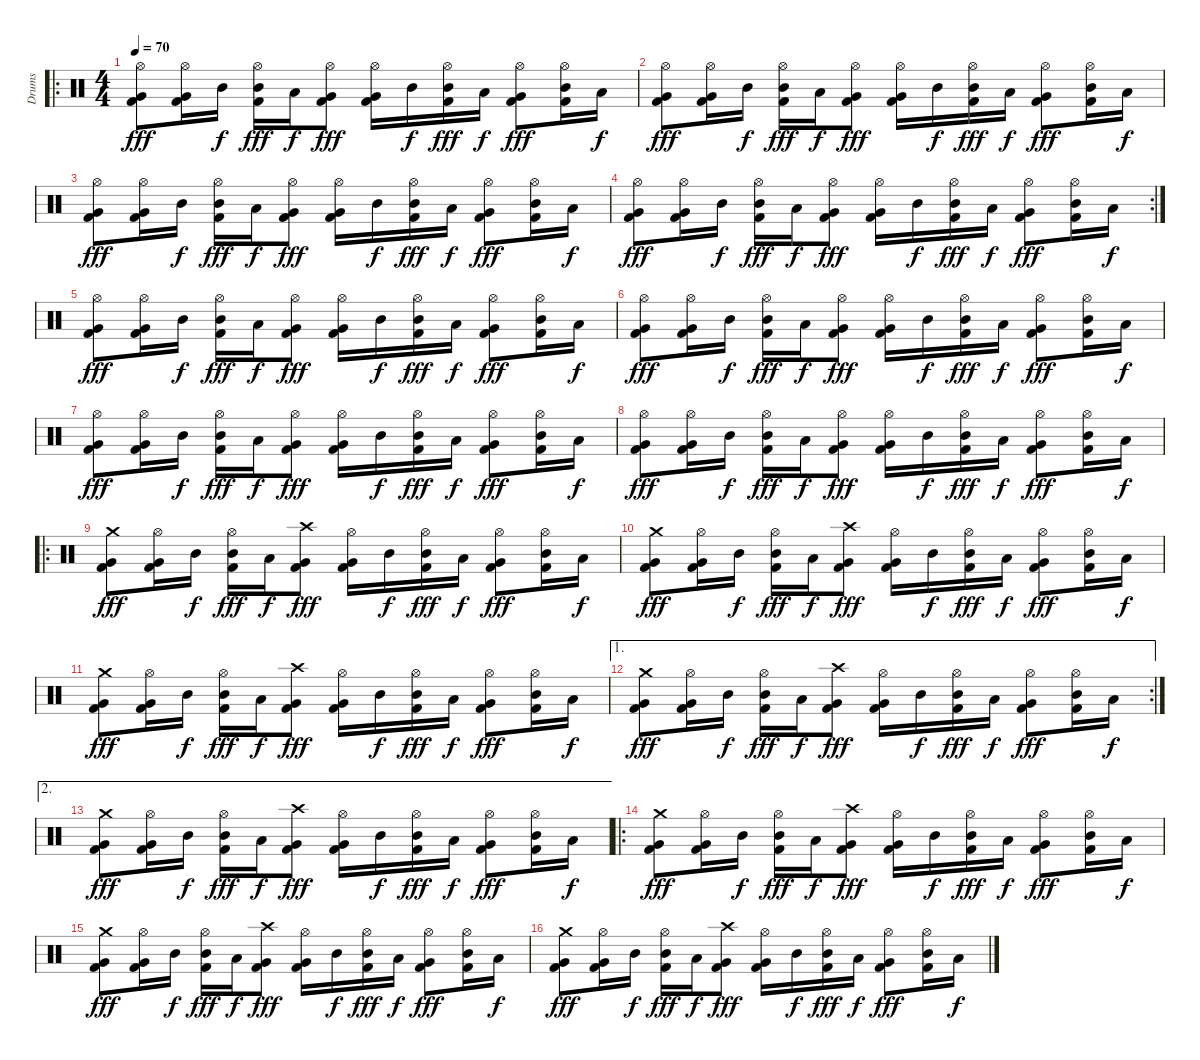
\track ("Drums" "Drums") {instrument percussion}
\staff {score}
\articulation defaults
\ro
\ts (4 4)
\tempo 70
\clef neutral
\ks c
("Hi-Hat (open)" "Kick (hit) 2" "Very Low Tom (hit)").8{dy fff} ("Hi-Hat (open)" "Kick (hit) 2" "Very Low Tom (hit)").16 "Mid Tom (hit)".16{dy f} ("Hi-Hat (open)" "Kick (hit) 2" "Mid Tom (hit)").16{dy fff} "Low Tom (hit)".16{dy f} ("Hi-Hat (open)" "Kick (hit) 2" "Very Low Tom (hit)").8{dy fff} ("Hi-Hat (open)" "Kick (hit) 2" "Very Low Tom (hit)").16 "Mid Tom (hit)".16{dy f} ("Hi-Hat (open)" "Kick (hit) 2" "Mid Tom (hit)").16{dy fff} "Low Tom (hit)".16{dy f} ("Hi-Hat (open)" "Kick (hit) 2" "Very Low Tom (hit)").8{dy fff} ("Hi-Hat (open)" "Kick (hit) 2" "Mid Tom (hit)").16 "Low Tom (hit)".16{dy f} |
("Hi-Hat (open)" "Kick (hit) 2" "Very Low Tom (hit)").8{dy fff} ("Hi-Hat (open)" "Kick (hit) 2" "Very Low Tom (hit)").16 "Mid Tom (hit)".16{dy f} ("Hi-Hat (open)" "Kick (hit) 2" "Mid Tom (hit)").16{dy fff} "Low Tom (hit)".16{dy f} ("Hi-Hat (open)" "Kick (hit) 2" "Very Low Tom (hit)").8{dy fff} ("Hi-Hat (open)" "Kick (hit) 2" "Very Low Tom (hit)").16 "Mid Tom (hit)".16{dy f} ("Hi-Hat (open)" "Kick (hit) 2" "Mid Tom (hit)").16{dy fff} "Low Tom (hit)".16{dy f} ("Hi-Hat (open)" "Kick (hit) 2" "Very Low Tom (hit)").8{dy fff} ("Hi-Hat (open)" "Kick (hit) 2" "Mid Tom (hit)").16 "Low Tom (hit)".16{dy f} |
("Hi-Hat (open)" "Kick (hit) 2" "Very Low Tom (hit)").8{dy fff} ("Hi-Hat (open)" "Kick (hit) 2" "Very Low Tom (hit)").16 "Mid Tom (hit)".16{dy f} ("Hi-Hat (open)" "Kick (hit) 2" "Mid Tom (hit)").16{dy fff} "Low Tom (hit)".16{dy f} ("Hi-Hat (open)" "Kick (hit) 2" "Very Low Tom (hit)").8{dy fff} ("Hi-Hat (open)" "Kick (hit) 2" "Very Low Tom (hit)").16 "Mid Tom (hit)".16{dy f} ("Hi-Hat (open)" "Kick (hit) 2" "Mid Tom (hit)").16{dy fff} "Low Tom (hit)".16{dy f} ("Hi-Hat (open)" "Kick (hit) 2" "Very Low Tom (hit)").8{dy fff} ("Hi-Hat (open)" "Kick (hit) 2" "Mid Tom (hit)").16 "Low Tom (hit)".16{dy f} |
\rc 2
("Hi-Hat (open)" "Kick (hit) 2" "Very Low Tom (hit)").8{dy fff} ("Hi-Hat (open)" "Kick (hit) 2" "Very Low Tom (hit)").16 "Mid Tom (hit)".16{dy f} ("Hi-Hat (open)" "Kick (hit) 2" "Mid Tom (hit)").16{dy fff} "Low Tom (hit)".16{dy f} ("Hi-Hat (open)" "Kick (hit) 2" "Very Low Tom (hit)").8{dy fff} ("Hi-Hat (open)" "Kick (hit) 2" "Very Low Tom (hit)").16 "Mid Tom (hit)".16{dy f} ("Hi-Hat (open)" "Kick (hit) 2" "Mid Tom (hit)").16{dy fff} "Low Tom (hit)".16{dy f} ("Hi-Hat (open)" "Kick (hit) 2" "Very Low Tom (hit)").8{dy fff} ("Hi-Hat (open)" "Kick (hit) 2" "Mid Tom (hit)").16 "Low Tom (hit)".16{dy f} |
("Hi-Hat (open)" "Kick (hit) 2" "Very Low Tom (hit)").8{dy fff} ("Hi-Hat (open)" "Kick (hit) 2" "Very Low Tom (hit)").16 "Mid Tom (hit)".16{dy f} ("Hi-Hat (open)" "Kick (hit) 2" "Mid Tom (hit)").16{dy fff} "Low Tom (hit)".16{dy f} ("Hi-Hat (open)" "Kick (hit) 2" "Very Low Tom (hit)").8{dy fff} ("Hi-Hat (open)" "Kick (hit) 2" "Very Low Tom (hit)").16 "Mid Tom (hit)".16{dy f} ("Hi-Hat (open)" "Kick (hit) 2" "Mid Tom (hit)").16{dy fff} "Low Tom (hit)".16{dy f} ("Hi-Hat (open)" "Kick (hit) 2" "Very Low Tom (hit)").8{dy fff} ("Hi-Hat (open)" "Kick (hit) 2" "Mid Tom (hit)").16 "Low Tom (hit)".16{dy f} |
("Hi-Hat (open)" "Kick (hit) 2" "Very Low Tom (hit)").8{dy fff} ("Hi-Hat (open)" "Kick (hit) 2" "Very Low Tom (hit)").16 "Mid Tom (hit)".16{dy f} ("Hi-Hat (open)" "Kick (hit) 2" "Mid Tom (hit)").16{dy fff} "Low Tom (hit)".16{dy f} ("Hi-Hat (open)" "Kick (hit) 2" "Very Low Tom (hit)").8{dy fff} ("Hi-Hat (open)" "Kick (hit) 2" "Very Low Tom (hit)").16 "Mid Tom (hit)".16{dy f} ("Hi-Hat (open)" "Kick (hit) 2" "Mid Tom (hit)").16{dy fff} "Low Tom (hit)".16{dy f} ("Hi-Hat (open)" "Kick (hit) 2" "Very Low Tom (hit)").8{dy fff} ("Hi-Hat (open)" "Kick (hit) 2" "Mid Tom (hit)").16 "Low Tom (hit)".16{dy f} |
("Hi-Hat (open)" "Kick (hit) 2" "Very Low Tom (hit)").8{dy fff} ("Hi-Hat (open)" "Kick (hit) 2" "Very Low Tom (hit)").16 "Mid Tom (hit)".16{dy f} ("Hi-Hat (open)" "Kick (hit) 2" "Mid Tom (hit)").16{dy fff} "Low Tom (hit)".16{dy f} ("Hi-Hat (open)" "Kick (hit) 2" "Very Low Tom (hit)").8{dy fff} ("Hi-Hat (open)" "Kick (hit) 2" "Very Low Tom (hit)").16 "Mid Tom (hit)".16{dy f} ("Hi-Hat (open)" "Kick (hit) 2" "Mid Tom (hit)").16{dy fff} "Low Tom (hit)".16{dy f} ("Hi-Hat (open)" "Kick (hit) 2" "Very Low Tom (hit)").8{dy fff} ("Hi-Hat (open)" "Kick (hit) 2" "Mid Tom (hit)").16 "Low Tom (hit)".16{dy f} |
("Hi-Hat (open)" "Kick (hit) 2" "Very Low Tom (hit)").8{dy fff} ("Hi-Hat (open)" "Kick (hit) 2" "Very Low Tom (hit)").16 "Mid Tom (hit)".16{dy f} ("Hi-Hat (open)" "Kick (hit) 2" "Mid Tom (hit)").16{dy fff} "Low Tom (hit)".16{dy f} ("Hi-Hat (open)" "Kick (hit) 2" "Very Low Tom (hit)").8{dy fff} ("Hi-Hat (open)" "Kick (hit) 2" "Very Low Tom (hit)").16 "Mid Tom (hit)".16{dy f} ("Hi-Hat (open)" "Kick (hit) 2" "Mid Tom (hit)").16{dy fff} "Low Tom (hit)".16{dy f} ("Hi-Hat (open)" "Kick (hit) 2" "Very Low Tom (hit)").8{dy fff} ("Hi-Hat (open)" "Kick (hit) 2" "Mid Tom (hit)").16 "Low Tom (hit)".16{dy f} |
\ro
("Crash medium (hit)" "Kick (hit) 2" "Very Low Tom (hit)").8{dy fff} ("Hi-Hat (open)" "Kick (hit) 2" "Very Low Tom (hit)").16 "Mid Tom (hit)".16{dy f} ("Hi-Hat (open)" "Kick (hit) 2" "Mid Tom (hit)").16{dy fff} "Low Tom (hit)".16{dy f} ("Crash high (hit)" "Kick (hit) 2" "Very Low Tom (hit)").8{dy fff} ("Hi-Hat (open)" "Kick (hit) 2" "Very Low Tom (hit)").16 "Mid Tom (hit)".16{dy f} ("Hi-Hat (open)" "Kick (hit) 2" "Mid Tom (hit)").16{dy fff} "Low Tom (hit)".16{dy f} ("Hi-Hat (open)" "Kick (hit) 2" "Very Low Tom (hit)").8{dy fff} ("Hi-Hat (open)" "Kick (hit) 2" "Mid Tom (hit)").16 "Low Tom (hit)".16{dy f} |
("Crash medium (hit)" "Kick (hit) 2" "Very Low Tom (hit)").8{dy fff} ("Hi-Hat (open)" "Kick (hit) 2" "Very Low Tom (hit)").16 "Mid Tom (hit)".16{dy f} ("Hi-Hat (open)" "Kick (hit) 2" "Mid Tom (hit)").16{dy fff} "Low Tom (hit)".16{dy f} ("Crash high (hit)" "Kick (hit) 2" "Very Low Tom (hit)").8{dy fff} ("Hi-Hat (open)" "Kick (hit) 2" "Very Low Tom (hit)").16 "Mid Tom (hit)".16{dy f} ("Hi-Hat (open)" "Kick (hit) 2" "Mid Tom (hit)").16{dy fff} "Low Tom (hit)".16{dy f} ("Hi-Hat (open)" "Kick (hit) 2" "Very Low Tom (hit)").8{dy fff} ("Hi-Hat (open)" "Kick (hit) 2" "Mid Tom (hit)").16 "Low Tom (hit)".16{dy f} |
("Crash medium (hit)" "Kick (hit) 2" "Very Low Tom (hit)").8{dy fff} ("Hi-Hat (open)" "Kick (hit) 2" "Very Low Tom (hit)").16 "Mid Tom (hit)".16{dy f} ("Hi-Hat (open)" "Kick (hit) 2" "Mid Tom (hit)").16{dy fff} "Low Tom (hit)".16{dy f} ("Crash high (hit)" "Kick (hit) 2" "Very Low Tom (hit)").8{dy fff} ("Hi-Hat (open)" "Kick (hit) 2" "Very Low Tom (hit)").16 "Mid Tom (hit)".16{dy f} ("Hi-Hat (open)" "Kick (hit) 2" "Mid Tom (hit)").16{dy fff} "Low Tom (hit)".16{dy f} ("Hi-Hat (open)" "Kick (hit) 2" "Very Low Tom (hit)").8{dy fff} ("Hi-Hat (open)" "Kick (hit) 2" "Mid Tom (hit)").16 "Low Tom (hit)".16{dy f} |
\ae 1
\rc 2
("Crash medium (hit)" "Kick (hit) 2" "Very Low Tom (hit)").8{dy fff} ("Hi-Hat (open)" "Kick (hit) 2" "Very Low Tom (hit)").16 "Mid Tom (hit)".16{dy f} ("Hi-Hat (open)" "Kick (hit) 2" "Mid Tom (hit)").16{dy fff} "Low Tom (hit)".16{dy f} ("Crash high (hit)" "Kick (hit) 2" "Very Low Tom (hit)").8{dy fff} ("Hi-Hat (open)" "Kick (hit) 2" "Very Low Tom (hit)").16 "Mid Tom (hit)".16{dy f} ("Hi-Hat (open)" "Kick (hit) 2" "Mid Tom (hit)").16{dy fff} "Low Tom (hit)".16{dy f} ("Hi-Hat (open)" "Kick (hit) 2" "Very Low Tom (hit)").8{dy fff} ("Hi-Hat (open)" "Kick (hit) 2" "Mid Tom (hit)").16 "Low Tom (hit)".16{dy f} |
\ae 2
("Crash medium (hit)" "Kick (hit) 2" "Very Low Tom (hit)").8{dy fff} ("Hi-Hat (open)" "Kick (hit) 2" "Very Low Tom (hit)").16 "Mid Tom (hit)".16{dy f} ("Hi-Hat (open)" "Kick (hit) 2" "Mid Tom (hit)").16{dy fff} "Low Tom (hit)".16{dy f} ("Crash high (hit)" "Kick (hit) 2" "Very Low Tom (hit)").8{dy fff} ("Hi-Hat (open)" "Kick (hit) 2" "Very Low Tom (hit)").16 "Mid Tom (hit)".16{dy f} ("Hi-Hat (open)" "Kick (hit) 2" "Mid Tom (hit)").16{dy fff} "Low Tom (hit)".16{dy f} ("Hi-Hat (open)" "Kick (hit) 2" "Very Low Tom (hit)").8{dy fff} ("Hi-Hat (open)" "Kick (hit) 2" "Mid Tom (hit)").16 "Low Tom (hit)".16{dy f} |
\ro
("Crash medium (hit)" "Kick (hit) 2" "Very Low Tom (hit)").8{dy fff volume 16} ("Hi-Hat (open)" "Kick (hit) 2" "Very Low Tom (hit)").16 "Mid Tom (hit)".16{dy f} ("Hi-Hat (open)" "Kick (hit) 2" "Mid Tom (hit)").16{dy fff} "Low Tom (hit)".16{dy f} ("Crash high (hit)" "Kick (hit) 2" "Very Low Tom (hit)").8{dy fff} ("Hi-Hat (open)" "Kick (hit) 2" "Very Low Tom (hit)").16 "Mid Tom (hit)".16{dy f} ("Hi-Hat (open)" "Kick (hit) 2" "Mid Tom (hit)").16{dy fff} "Low Tom (hit)".16{dy f} ("Hi-Hat (open)" "Kick (hit) 2" "Very Low Tom (hit)").8{dy fff} ("Hi-Hat (open)" "Kick (hit) 2" "Mid Tom (hit)").16 "Low Tom (hit)".16{dy f} |
("Crash medium (hit)" "Kick (hit) 2" "Very Low Tom (hit)").8{dy fff} ("Hi-Hat (open)" "Kick (hit) 2" "Very Low Tom (hit)").16 "Mid Tom (hit)".16{dy f} ("Hi-Hat (open)" "Kick (hit) 2" "Mid Tom (hit)").16{dy fff} "Low Tom (hit)".16{dy f} ("Crash high (hit)" "Kick (hit) 2" "Very Low Tom (hit)").8{dy fff} ("Hi-Hat (open)" "Kick (hit) 2" "Very Low Tom (hit)").16 "Mid Tom (hit)".16{dy f} ("Hi-Hat (open)" "Kick (hit) 2" "Mid Tom (hit)").16{dy fff} "Low Tom (hit)".16{dy f} ("Hi-Hat (open)" "Kick (hit) 2" "Very Low Tom (hit)").8{dy fff} ("Hi-Hat (open)" "Kick (hit) 2" "Mid Tom (hit)").16 "Low Tom (hit)".16{dy f} |
("Crash medium (hit)" "Kick (hit) 2" "Very Low Tom (hit)").8{dy fff} ("Hi-Hat (open)" "Kick (hit) 2" "Very Low Tom (hit)").16 "Mid Tom (hit)".16{dy f} ("Hi-Hat (open)" "Kick (hit) 2" "Mid Tom (hit)").16{dy fff} "Low Tom (hit)".16{dy f} ("Crash high (hit)" "Kick (hit) 2" "Very Low Tom (hit)").8{dy fff} ("Hi-Hat (open)" "Kick (hit) 2" "Very Low Tom (hit)").16 "Mid Tom (hit)".16{dy f} ("Hi-Hat (open)" "Kick (hit) 2" "Mid Tom (hit)").16{dy fff} "Low Tom (hit)".16{dy f} ("Hi-Hat (open)" "Kick (hit) 2" "Very Low Tom (hit)").8{dy fff} ("Hi-Hat (open)" "Kick (hit) 2" "Mid Tom (hit)").16 "Low Tom (hit)".16{dy f}
